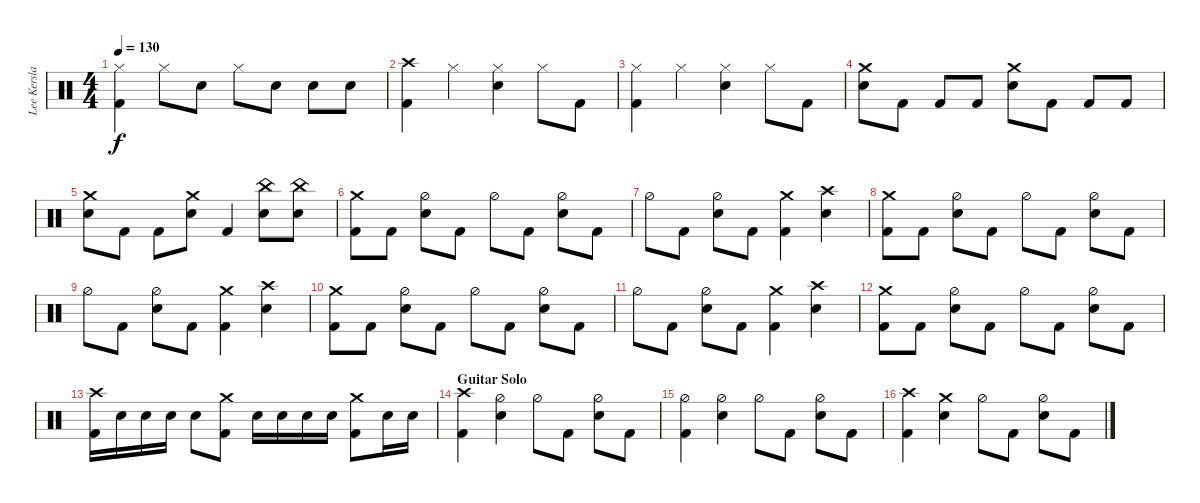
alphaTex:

\track ("Lee Kerslake" "Lee Kersla") {instrument percussion}
\staff {score}
\articulation defaults
\ts (4 4)
\tempo 130
\clef neutral
\ks c
("Kick (hit) 2" "Hi-Hat (closed)").4{dy f} "Hi-Hat (closed)".8 "Snare (hit) 2".8 "Hi-Hat (closed)".8 "Snare (hit) 2".8 "Snare (hit) 2".8 "Snare (hit) 2".8 |
("Kick (hit) 2" "Crash high (hit)").4 "Hi-Hat (closed)".4 ("Hi-Hat (closed)" "Snare (hit) 2").4 "Hi-Hat (closed)".8 "Kick (hit) 2".8 |
("Kick (hit) 2" "Hi-Hat (closed)").4 "Hi-Hat (closed)".4 ("Hi-Hat (closed)" "Snare (hit) 2").4 "Hi-Hat (closed)".8 "Kick (hit) 2".8 |
("Snare (hit) 2" "Crash medium (hit)").8 "Kick (hit) 2".8 "Kick (hit) 2".8 "Kick (hit) 2".8 ("Snare (hit) 2" "Crash medium (hit)").8 "Kick (hit) 2".8 "Kick (hit) 2".8 "Kick (hit) 2".8 |
("Snare (hit) 2" "Crash medium (hit)").8 "Kick (hit) 2".8 "Kick (hit) 2".8 ("Snare (hit) 2" "Crash medium (hit)").8 "Kick (hit) 2".4 ("Snare (hit) 2" "China (hit)").8 ("Snare (hit) 2" "China (hit)").8 |
("Kick (hit) 2" "Crash medium (hit)").8 "Kick (hit) 2".8 ("Snare (hit) 2" "Hi-Hat (half)").8 "Kick (hit) 2".8 "Hi-Hat (half)".8 "Kick (hit) 2".8 ("Snare (hit) 2" "Hi-Hat (half)").8 "Kick (hit) 2".8 |
"Hi-Hat (half)".8 "Kick (hit) 2".8 ("Snare (hit) 2" "Hi-Hat (half)").8 "Kick (hit) 2".8 ("Kick (hit) 2" "Crash medium (hit)").4 ("Snare (hit) 2" "Crash high (hit)").4 |
("Kick (hit) 2" "Crash medium (hit)").8 "Kick (hit) 2".8 ("Snare (hit) 2" "Hi-Hat (half)").8 "Kick (hit) 2".8 "Hi-Hat (half)".8 "Kick (hit) 2".8 ("Snare (hit) 2" "Hi-Hat (half)").8 "Kick (hit) 2".8 |
"Hi-Hat (half)".8 "Kick (hit) 2".8 ("Snare (hit) 2" "Hi-Hat (half)").8 "Kick (hit) 2".8 ("Kick (hit) 2" "Crash medium (hit)").4 ("Snare (hit) 2" "Crash high (hit)").4 |
("Kick (hit) 2" "Crash medium (hit)").8 "Kick (hit) 2".8 ("Snare (hit) 2" "Hi-Hat (half)").8 "Kick (hit) 2".8 "Hi-Hat (half)".8 "Kick (hit) 2".8 ("Snare (hit) 2" "Hi-Hat (half)").8 "Kick (hit) 2".8 |
"Hi-Hat (half)".8 "Kick (hit) 2".8 ("Snare (hit) 2" "Hi-Hat (half)").8 "Kick (hit) 2".8 ("Kick (hit) 2" "Crash medium (hit)").4 ("Snare (hit) 2" "Crash high (hit)").4 |
("Kick (hit) 2" "Crash medium (hit)").8 "Kick (hit) 2".8 ("Snare (hit) 2" "Hi-Hat (half)").8 "Kick (hit) 2".8 "Hi-Hat (half)".8 "Kick (hit) 2".8 ("Snare (hit) 2" "Hi-Hat (half)").8 "Kick (hit) 2".8 |
("Kick (hit) 2" "Crash high (hit)").16 "Snare (hit) 2".16 "Snare (hit) 2".16 "Snare (hit) 2".16 "Snare (hit) 2".8 ("Kick (hit) 2" "Crash medium (hit)").8 "Snare (hit) 2".16 "Snare (hit) 2".16 "Snare (hit) 2".16 "Snare (hit) 2".16 ("Kick (hit) 2" "Crash medium (hit)").8 "Snare (hit) 2".16 "Snare (hit) 2".16 |
\section ("" "Guitar Solo")
("Kick (hit) 2" "Crash high (hit)").4 ("Snare (hit) 2" "Hi-Hat (half)").4 "Hi-Hat (half)".8 "Kick (hit) 2".8 ("Snare (hit) 2" "Hi-Hat (half)").8 "Kick (hit) 2".8 |
("Kick (hit) 2" "Hi-Hat (half)").4 ("Snare (hit) 2" "Hi-Hat (half)").4 "Hi-Hat (half)".8 "Kick (hit) 2".8 ("Snare (hit) 2" "Hi-Hat (half)").8 "Kick (hit) 2".8 |
("Kick (hit) 2" "Crash high (hit)").4 ("Snare (hit) 2" "Crash medium (hit)").4 "Hi-Hat (half)".8 "Kick (hit) 2".8 ("Snare (hit) 2" "Hi-Hat (half)").8 "Kick (hit) 2".8
